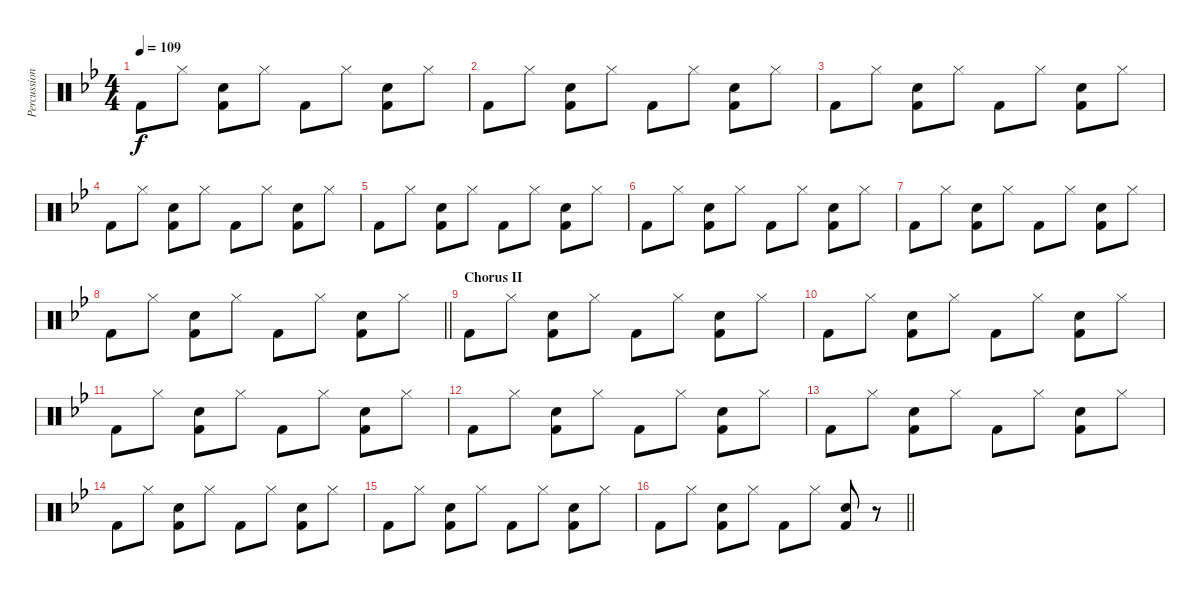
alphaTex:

\track ("Percussions" "Percussion") {instrument percussion}
\staff {score}
\articulation defaults
\ts (4 4)
\tempo 109
\clef neutral
\ks bb "Kick (hit) 2".8{dy f} "Hi-Hat (closed)".8
("Snare (hit) 2" "Kick (hit) 2").8 "Hi-Hat (closed)".8 "Kick (hit) 2".8 "Hi-Hat (closed)".8 ("Snare (hit) 2" "Kick (hit) 2").8 "Hi-Hat (closed)".8 |
"Kick (hit) 2".8 "Hi-Hat (closed)".8 ("Snare (hit) 2" "Kick (hit) 2").8 "Hi-Hat (closed)".8 "Kick (hit) 2".8 "Hi-Hat (closed)".8 ("Snare (hit) 2" "Kick (hit) 2").8 "Hi-Hat (closed)".8 |
"Kick (hit) 2".8 "Hi-Hat (closed)".8 ("Snare (hit) 2" "Kick (hit) 2").8 "Hi-Hat (closed)".8 "Kick (hit) 2".8 "Hi-Hat (closed)".8 ("Snare (hit) 2" "Kick (hit) 2").8 "Hi-Hat (closed)".8 |
"Kick (hit) 2".8 "Hi-Hat (closed)".8 ("Snare (hit) 2" "Kick (hit) 2").8 "Hi-Hat (closed)".8 "Kick (hit) 2".8 "Hi-Hat (closed)".8 ("Snare (hit) 2" "Kick (hit) 2").8 "Hi-Hat (closed)".8 |
"Kick (hit) 2".8 "Hi-Hat (closed)".8 ("Snare (hit) 2" "Kick (hit) 2").8 "Hi-Hat (closed)".8 "Kick (hit) 2".8 "Hi-Hat (closed)".8 ("Snare (hit) 2" "Kick (hit) 2").8 "Hi-Hat (closed)".8 |
"Kick (hit) 2".8 "Hi-Hat (closed)".8 ("Snare (hit) 2" "Kick (hit) 2").8 "Hi-Hat (closed)".8 "Kick (hit) 2".8 "Hi-Hat (closed)".8 ("Snare (hit) 2" "Kick (hit) 2").8 "Hi-Hat (closed)".8 |
"Kick (hit) 2".8 "Hi-Hat (closed)".8 ("Snare (hit) 2" "Kick (hit) 2").8 "Hi-Hat (closed)".8 "Kick (hit) 2".8 "Hi-Hat (closed)".8 ("Snare (hit) 2" "Kick (hit) 2").8 "Hi-Hat (closed)".8 |
\barLineRight lightlight "Kick (hit) 2".8 "Hi-Hat (closed)".8
("Snare (hit) 2" "Kick (hit) 2").8 "Hi-Hat (closed)".8 "Kick (hit) 2".8 "Hi-Hat (closed)".8 ("Snare (hit) 2" "Kick (hit) 2").8 "Hi-Hat (closed)".8 |
\section ("" "Chorus II")
"Kick (hit) 2".8 "Hi-Hat (closed)".8 ("Snare (hit) 2" "Kick (hit) 2").8 "Hi-Hat (closed)".8 "Kick (hit) 2".8 "Hi-Hat (closed)".8 ("Snare (hit) 2" "Kick (hit) 2").8 "Hi-Hat (closed)".8 |
"Kick (hit) 2".8 "Hi-Hat (closed)".8 ("Snare (hit) 2" "Kick (hit) 2").8 "Hi-Hat (closed)".8 "Kick (hit) 2".8 "Hi-Hat (closed)".8 ("Snare (hit) 2" "Kick (hit) 2").8 "Hi-Hat (closed)".8 |
"Kick (hit) 2".8 "Hi-Hat (closed)".8 ("Snare (hit) 2" "Kick (hit) 2").8 "Hi-Hat (closed)".8 "Kick (hit) 2".8 "Hi-Hat (closed)".8 ("Snare (hit) 2" "Kick (hit) 2").8 "Hi-Hat (closed)".8 |
"Kick (hit) 2".8 "Hi-Hat (closed)".8 ("Snare (hit) 2" "Kick (hit) 2").8 "Hi-Hat (closed)".8 "Kick (hit) 2".8 "Hi-Hat (closed)".8 ("Snare (hit) 2" "Kick (hit) 2").8 "Hi-Hat (closed)".8 |
"Kick (hit) 2".8 "Hi-Hat (closed)".8 ("Snare (hit) 2" "Kick (hit) 2").8 "Hi-Hat (closed)".8 "Kick (hit) 2".8 "Hi-Hat (closed)".8 ("Snare (hit) 2" "Kick (hit) 2").8 "Hi-Hat (closed)".8 |
"Kick (hit) 2".8 "Hi-Hat (closed)".8 ("Snare (hit) 2" "Kick (hit) 2").8 "Hi-Hat (closed)".8 "Kick (hit) 2".8 "Hi-Hat (closed)".8 ("Snare (hit) 2" "Kick (hit) 2").8 "Hi-Hat (closed)".8 |
"Kick (hit) 2".8 "Hi-Hat (closed)".8 ("Snare (hit) 2" "Kick (hit) 2").8 "Hi-Hat (closed)".8 "Kick (hit) 2".8 "Hi-Hat (closed)".8 ("Snare (hit) 2" "Kick (hit) 2").8 "Hi-Hat (closed)".8 |
\barLineRight lightlight "Kick (hit) 2".8 "Hi-Hat (closed)".8
("Snare (hit) 2" "Kick (hit) 2").8 "Hi-Hat (closed)".8 "Kick (hit) 2".8 "Hi-Hat (closed)".8 ("Snare (hit) 2" "Kick (hit) 2").8 r.8
